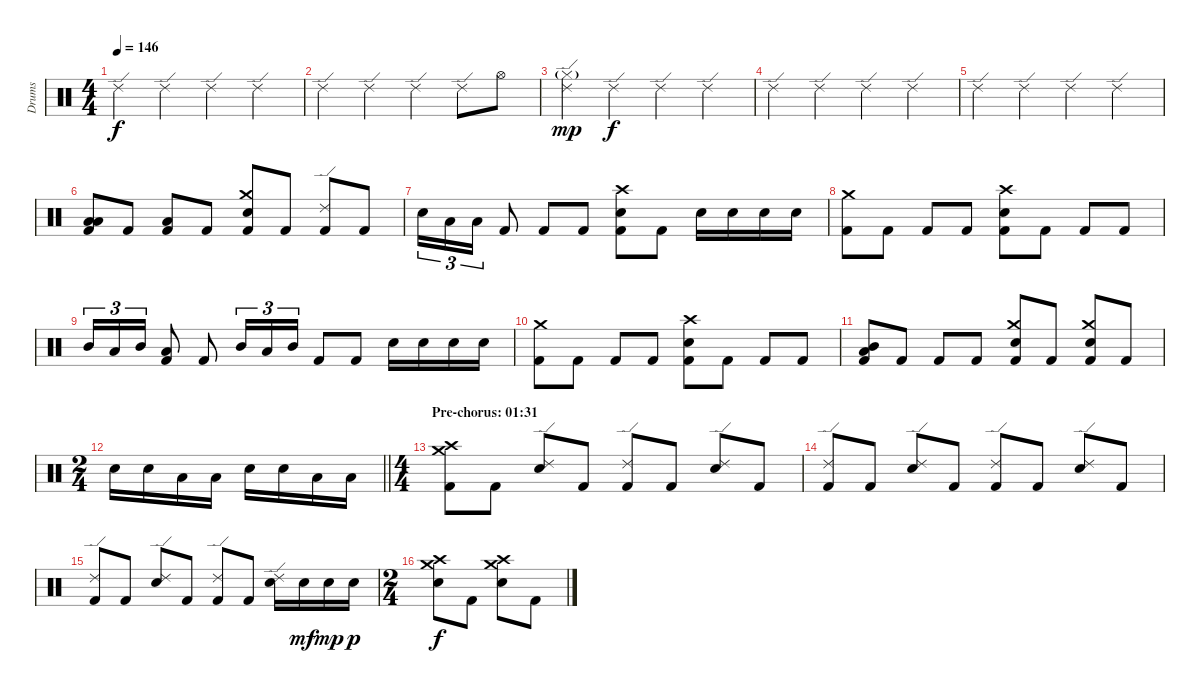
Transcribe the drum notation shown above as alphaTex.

\track ("Drums" "Drums") {instrument percussion}
\staff {score}
\articulation defaults
\ts (4 4)
\tempo 146
\clef neutral
\ks c "Ride (edge) 2".4{dy f} "Ride (edge) 2".4 "Ride (edge) 2".4 "Ride (edge) 2".4
|
"Ride (edge) 2".4 "Ride (edge) 2".4 "Ride (edge) 2".4 "Ride (edge) 2".8 "Hi-Hat (open)".8 |
("Ride (edge) 2" "Hi-Hat (closed)"{g}).4{dy mp} "Ride (edge) 2".4{dy f} "Ride (edge) 2".4 "Ride (edge) 2".4 |
"Ride (edge) 2".4 "Ride (edge) 2".4 "Ride (edge) 2".4 "Ride (edge) 2".4 |
"Ride (edge) 2".4 "Ride (edge) 2".4 "Ride (edge) 2".4 "Ride (edge) 2".4 |
("Low Tom (hit)" "Low Floor Tom (hit)" "Kick (hit) 2").8 "Kick (hit) 2".8 ("Low Floor Tom (hit)" "Kick (hit) 2").8 "Kick (hit) 2".8 ("Crash medium (hit)" "Electric Snare (hit)" "Kick (hit) 2").8 "Kick (hit) 2".8 ("Ride (edge) 2" "Kick (hit) 2").8 "Kick (hit) 2".8 |
"Electric Snare (hit)".16{tu (3 2)} "Low Floor Tom (hit)".16{tu (3 2)} "Low Tom (hit)".16{tu (3 2)} "Kick (hit) 2".8 "Kick (hit) 2".8 "Kick (hit) 2".8 ("Crash high (hit)" "Electric Snare (hit)" "Kick (hit) 2").8 "Kick (hit) 2".8 "Electric Snare (hit)".16 "Electric Snare (hit)".16 "Electric Snare (hit)".16 "Electric Snare (hit)".16 |
("Crash medium (hit)" "Kick (hit) 2").8 "Kick (hit) 2".8 "Kick (hit) 2".8 "Kick (hit) 2".8 ("Crash high (hit)" "Electric Snare (hit)" "Kick (hit) 2").8 "Kick (hit) 2".8 "Kick (hit) 2".8 "Kick (hit) 2".8 |
"Mid Tom (hit)".16{tu (3 2)} "Low Tom (hit)".16{tu (3 2)} "Mid Tom (hit)".16{tu (3 2)} ("Low Floor Tom (hit)" "Kick (hit) 2").8 "Kick (hit) 2".8 "Mid Tom (hit)".16{tu (3 2)} "Low Tom (hit)".16{tu (3 2)} "Mid Tom (hit)".16{tu (3 2)} "Kick (hit) 2".8 "Kick (hit) 2".8 "Electric Snare (hit)".16 "Electric Snare (hit)".16 "Electric Snare (hit)".16 "Electric Snare (hit)".16 |
("Crash medium (hit)" "Kick (hit) 2").8 "Kick (hit) 2".8 "Kick (hit) 2".8 "Kick (hit) 2".8 ("Crash high (hit)" "Electric Snare (hit)" "Kick (hit) 2").8 "Kick (hit) 2".8 "Kick (hit) 2".8 "Kick (hit) 2".8 |
("Mid Tom (hit)" "Low Tom (hit)" "Kick (hit) 2").8 "Kick (hit) 2".8 "Kick (hit) 2".8 "Kick (hit) 2".8 ("Crash medium (hit)" "Electric Snare (hit)" "Kick (hit) 2").8 "Kick (hit) 2".8 ("Crash medium (hit)" "Electric Snare (hit)" "Kick (hit) 2").8 "Kick (hit) 2".8 |
\ts (2 4)
\barLineRight lightlight "Electric Snare (hit)".16 "Electric Snare (hit)".16 "Low Tom (hit)".16 "Low Tom (hit)".16 "Electric Snare (hit)".16 "Electric Snare (hit)".16 "Low Floor Tom (hit)".16 "Low Floor Tom (hit)".16
|
\ts (4 4)
\section ("" "Pre-chorus: 01:31")
("Crash high (hit)" "Crash medium (hit)" "Kick (hit) 2").8 "Kick (hit) 2".8 ("Ride (edge) 2" "Electric Snare (hit)").8 "Kick (hit) 2".8 ("Ride (edge) 2" "Kick (hit) 2").8 "Kick (hit) 2".8 ("Ride (edge) 2" "Electric Snare (hit)").8 "Kick (hit) 2".8 |
("Ride (edge) 2" "Kick (hit) 2").8 "Kick (hit) 2".8 ("Ride (edge) 2" "Electric Snare (hit)").8 "Kick (hit) 2".8 ("Ride (edge) 2" "Kick (hit) 2").8 "Kick (hit) 2".8 ("Ride (edge) 2" "Electric Snare (hit)").8 "Kick (hit) 2".8 |
("Ride (edge) 2" "Kick (hit) 2").8 "Kick (hit) 2".8 ("Ride (edge) 2" "Electric Snare (hit)").8 "Kick (hit) 2".8 ("Ride (edge) 2" "Kick (hit) 2").8 "Kick (hit) 2".8 ("Ride (edge) 2" "Electric Snare (hit)").16 "Electric Snare (hit)".16{dy mf} "Electric Snare (hit)".16{dy mp} "Electric Snare (hit)".16{dy p} |
\ts (2 4)
("Crash high (hit)" "Crash medium (hit)" "Electric Snare (hit)").8{dy f} "Kick (hit) 2".8 ("Crash high (hit)" "Crash medium (hit)" "Electric Snare (hit)").8 "Kick (hit) 2".8
